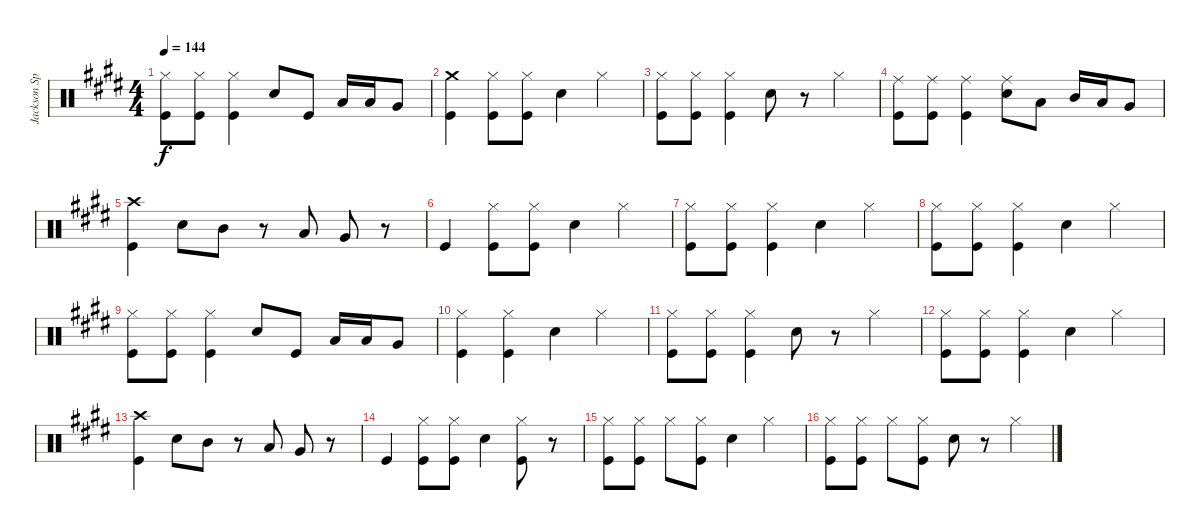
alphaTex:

\track ("Jackson Spiers Drums" "Jackson Sp") {instrument percussion}
\staff {score}
\articulation defaults
\ts (4 4)
\tempo 144
\clef neutral
\ks c#minor
("Hi-Hat (closed)" "Kick (hit)").8{dy f} ("Hi-Hat (closed)" "Kick (hit)").8 ("Hi-Hat (closed)" "Kick (hit)").4 "Snare (hit) 2".8 "Kick (hit)".8 "Low Tom (hit)".16 "Low Tom (hit)".16 "Very Low Tom (hit)".8 |
("Crash medium (hit)" "Kick (hit)").4 ("Hi-Hat (closed)" "Kick (hit)").8 ("Hi-Hat (closed)" "Kick (hit)").8 "Snare (hit) 2".4 "Hi-Hat (closed)".4 |
("Hi-Hat (closed)" "Kick (hit)").8 ("Hi-Hat (closed)" "Kick (hit)").8 ("Hi-Hat (closed)" "Kick (hit)").4 "Snare (hit) 2".8 r.8 "Hi-Hat (closed)".4 |
("Ride (middle)" "Kick (hit)").8 ("Ride (middle)" "Kick (hit)").8 ("Ride (middle)" "Kick (hit)").4 ("Ride (middle)" "Snare (hit) 2").8 "Low Tom (hit)".8 "Mid Tom (hit)".16 "Low Tom (hit)".16 "Very Low Tom (hit)".8 |
("Crash high (hit)" "Kick (hit)").4 "Snare (hit) 2".8 "Mid Tom (hit)".8 r.8 "Low Tom (hit)".8 "Very Low Tom (hit)".8 r.8 |
"Kick (hit)".4 ("Hi-Hat (closed)" "Kick (hit)").8 ("Hi-Hat (closed)" "Kick (hit)").8 "Snare (hit) 2".4 "Hi-Hat (closed)".4 |
("Hi-Hat (closed)" "Kick (hit)").8 ("Hi-Hat (closed)" "Kick (hit)").8 ("Hi-Hat (closed)" "Kick (hit)").4 "Snare (hit) 2".4 "Hi-Hat (closed)".4 |
("Hi-Hat (closed)" "Kick (hit)").8 ("Hi-Hat (closed)" "Kick (hit)").8 ("Hi-Hat (closed)" "Kick (hit)").4 "Snare (hit) 2".4 "Hi-Hat (closed)".4 |
("Hi-Hat (closed)" "Kick (hit)").8 ("Hi-Hat (closed)" "Kick (hit)").8 ("Hi-Hat (closed)" "Kick (hit)").4 "Snare (hit) 2".8 "Kick (hit)".8 "Low Tom (hit)".16 "Low Tom (hit)".16 "Very Low Tom (hit)".8 |
("Hi-Hat (closed)" "Kick (hit)").4 ("Hi-Hat (closed)" "Kick (hit)").4 "Snare (hit) 2".4 "Hi-Hat (closed)".4 |
("Hi-Hat (closed)" "Kick (hit)").8 ("Hi-Hat (closed)" "Kick (hit)").8 ("Hi-Hat (closed)" "Kick (hit)").4 "Snare (hit) 2".8 r.8 "Hi-Hat (closed)".4 |
("Hi-Hat (closed)" "Kick (hit)").8 ("Hi-Hat (closed)" "Kick (hit)").8 ("Hi-Hat (closed)" "Kick (hit)").4 "Snare (hit) 2".4 "Hi-Hat (closed)".4 |
("Crash high (hit)" "Kick (hit)").4 "Snare (hit) 2".8 "Mid Tom (hit)".8 r.8 "Low Tom (hit)".8 "Very Low Tom (hit)".8 r.8 |
"Kick (hit)".4 ("Hi-Hat (closed)" "Kick (hit)").8 ("Hi-Hat (closed)" "Kick (hit)").8 "Snare (hit) 2".4 ("Hi-Hat (closed)" "Kick (hit)").8 r.8 |
("Hi-Hat (closed)" "Kick (hit)").8 ("Hi-Hat (closed)" "Kick (hit)").8 "Hi-Hat (closed)".8 ("Hi-Hat (closed)" "Kick (hit)").8 "Snare (hit) 2".4 "Hi-Hat (closed)".4 |
("Hi-Hat (closed)" "Kick (hit)").8 ("Hi-Hat (closed)" "Kick (hit)").8 "Hi-Hat (closed)".8 ("Hi-Hat (closed)" "Kick (hit)").8 "Snare (hit) 2".8 r.8 "Hi-Hat (closed)".4
